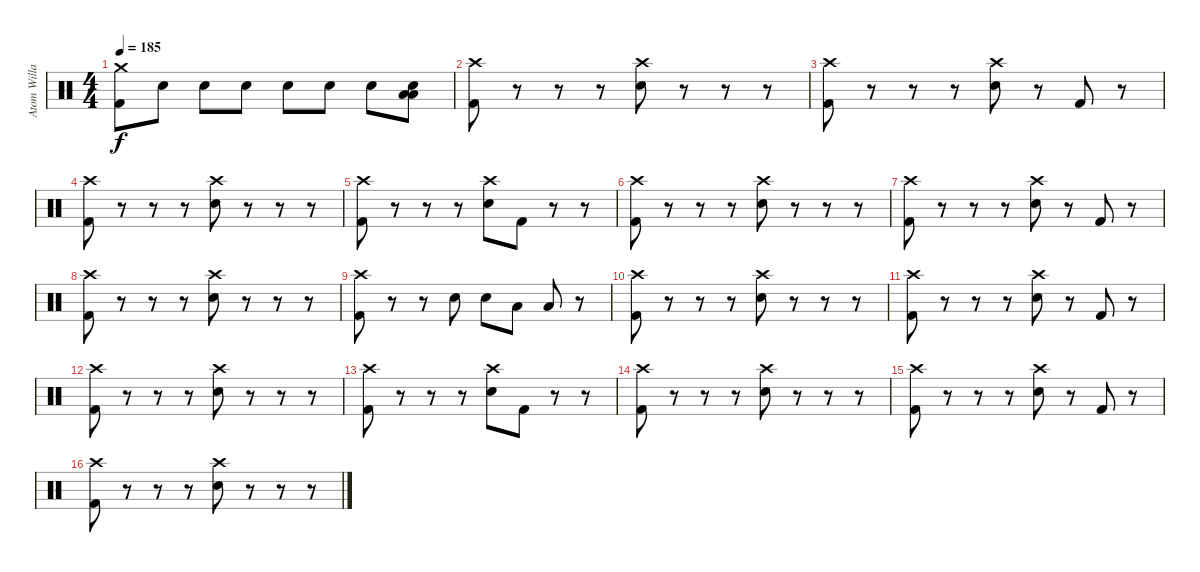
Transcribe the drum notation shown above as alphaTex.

\track ("Atom Willard Drums" "Atom Willa") {instrument percussion}
\staff {score}
\articulation defaults
\ts (4 4)
\tempo 185
\clef neutral
\ks c
("Crash medium (hit)" "Kick (hit) 2").8{dy f} "Electric Snare (hit)".8 "Electric Snare (hit)".8 "Electric Snare (hit)".8 "Electric Snare (hit)".8 "Electric Snare (hit)".8 "Electric Snare (hit)".8 ("Low Tom (hit)" "Low Tom (hit)" "Electric Snare (hit)").8 |
("Crash high (hit)" "Kick (hit) 2").8 r.8 r.8 r.8 ("Crash high (hit)" "Electric Snare (hit)").8 r.8 r.8 r.8 |
("Crash high (hit)" "Kick (hit) 2").8 r.8 r.8 r.8 ("Crash high (hit)" "Electric Snare (hit)").8 r.8 "Kick (hit) 2".8 r.8 |
("Crash high (hit)" "Kick (hit) 2").8 r.8 r.8 r.8 ("Crash high (hit)" "Electric Snare (hit)").8 r.8 r.8 r.8 |
("Crash high (hit)" "Kick (hit) 2").8 r.8 r.8 r.8 ("Crash high (hit)" "Electric Snare (hit)").8 "Kick (hit) 2".8 r.8 r.8 |
("Crash high (hit)" "Kick (hit) 2").8 r.8 r.8 r.8 ("Crash high (hit)" "Electric Snare (hit)").8 r.8 r.8 r.8 |
("Crash high (hit)" "Kick (hit) 2").8 r.8 r.8 r.8 ("Crash high (hit)" "Electric Snare (hit)").8 r.8 "Kick (hit) 2".8 r.8 |
("Crash high (hit)" "Kick (hit) 2").8 r.8 r.8 r.8 ("Crash high (hit)" "Electric Snare (hit)").8 r.8 r.8 r.8 |
("Crash high (hit)" "Kick (hit) 2").8 r.8 r.8 "Electric Snare (hit)".8 "Electric Snare (hit)".8 "Low Tom (hit)".8 "Low Tom (hit)".8 r.8 |
("Crash high (hit)" "Kick (hit) 2").8 r.8 r.8 r.8 ("Crash high (hit)" "Electric Snare (hit)").8 r.8 r.8 r.8 |
("Crash high (hit)" "Kick (hit) 2").8 r.8 r.8 r.8 ("Crash high (hit)" "Electric Snare (hit)").8 r.8 "Kick (hit) 2".8 r.8 |
("Crash high (hit)" "Kick (hit) 2").8 r.8 r.8 r.8 ("Crash high (hit)" "Electric Snare (hit)").8 r.8 r.8 r.8 |
("Crash high (hit)" "Kick (hit) 2").8 r.8 r.8 r.8 ("Crash high (hit)" "Electric Snare (hit)").8 "Kick (hit) 2".8 r.8 r.8 |
("Crash high (hit)" "Kick (hit) 2").8 r.8 r.8 r.8 ("Crash high (hit)" "Electric Snare (hit)").8 r.8 r.8 r.8 |
("Crash high (hit)" "Kick (hit) 2").8 r.8 r.8 r.8 ("Crash high (hit)" "Electric Snare (hit)").8 r.8 "Kick (hit) 2".8 r.8 |
("Crash high (hit)" "Kick (hit) 2").8 r.8 r.8 r.8 ("Crash high (hit)" "Electric Snare (hit)").8 r.8 r.8 r.8
